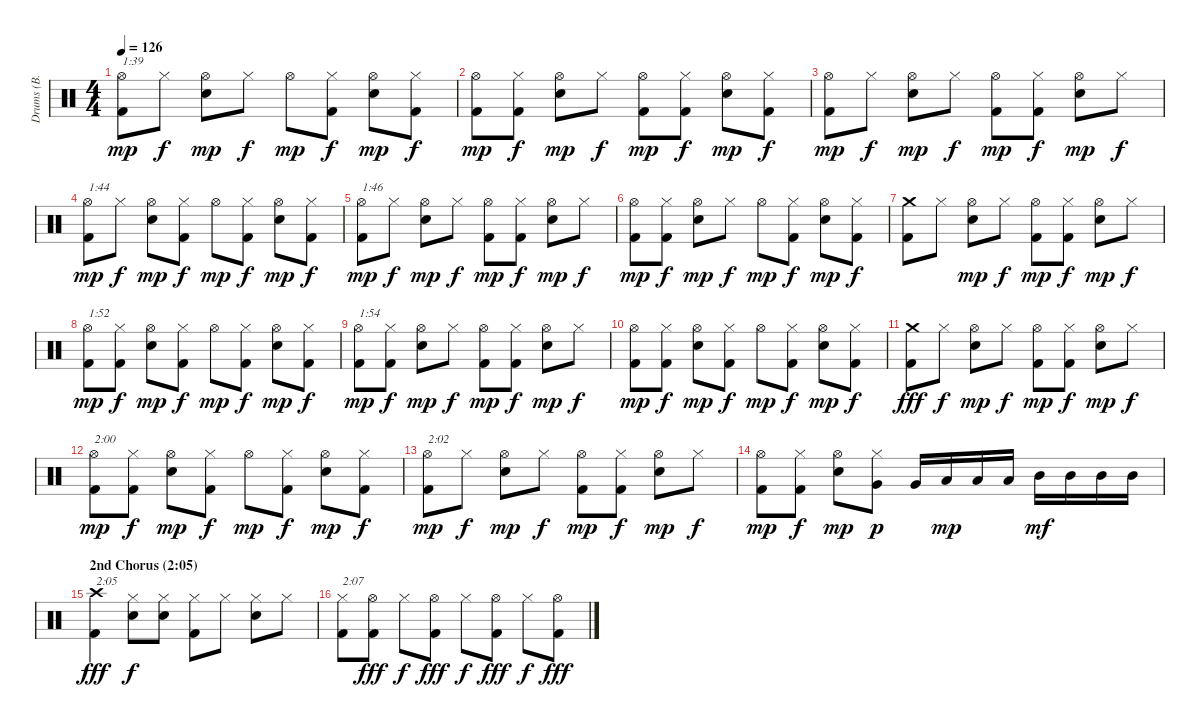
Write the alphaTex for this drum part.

\track ("Drums (B. Downey)" "Drums (B. ") {instrument percussion}
\staff {score}
\articulation defaults
\ts (4 4)
\tempo 126
\clef neutral
\ks c
("Hi-Hat (open)" "Kick (hit) 2").8{txt "1:39" dy mp} "Hi-Hat (closed)".8{dy f} ("Hi-Hat (open)" "Electric Snare (hit)").8{dy mp} "Hi-Hat (closed)".8{dy f} "Hi-Hat (open)".8{dy mp} ("Hi-Hat (closed)" "Kick (hit) 2").8{dy f} ("Hi-Hat (open)" "Electric Snare (hit)").8{dy mp} ("Hi-Hat (closed)" "Kick (hit) 2").8{dy f} |
("Hi-Hat (open)" "Kick (hit) 2").8{dy mp} ("Hi-Hat (closed)" "Kick (hit) 2").8{dy f} ("Hi-Hat (open)" "Electric Snare (hit)").8{dy mp} "Hi-Hat (closed)".8{dy f} ("Hi-Hat (open)" "Kick (hit) 2").8{dy mp} ("Hi-Hat (closed)" "Kick (hit) 2").8{dy f} ("Hi-Hat (open)" "Electric Snare (hit)").8{dy mp} ("Hi-Hat (closed)" "Kick (hit) 2").8{dy f} |
("Hi-Hat (open)" "Kick (hit) 2").8{dy mp} "Hi-Hat (closed)".8{dy f} ("Hi-Hat (open)" "Electric Snare (hit)").8{dy mp} "Hi-Hat (closed)".8{dy f} ("Hi-Hat (open)" "Kick (hit) 2").8{dy mp} ("Hi-Hat (closed)" "Kick (hit) 2").8{dy f} ("Hi-Hat (open)" "Electric Snare (hit)").8{dy mp} "Hi-Hat (closed)".8{dy f} |
("Hi-Hat (open)" "Kick (hit) 2").8{txt "1:44" dy mp} "Hi-Hat (closed)".8{dy f} ("Hi-Hat (open)" "Electric Snare (hit)").8{dy mp} ("Hi-Hat (closed)" "Kick (hit) 2").8{dy f} "Hi-Hat (open)".8{dy mp} ("Hi-Hat (closed)" "Kick (hit) 2").8{dy f} ("Hi-Hat (open)" "Electric Snare (hit)").8{dy mp} ("Hi-Hat (closed)" "Kick (hit) 2").8{dy f} |
("Hi-Hat (open)" "Kick (hit) 2").8{txt "1:46" dy mp} "Hi-Hat (closed)".8{dy f} ("Hi-Hat (open)" "Electric Snare (hit)").8{dy mp} "Hi-Hat (closed)".8{dy f} ("Hi-Hat (open)" "Kick (hit) 2").8{dy mp} ("Hi-Hat (closed)" "Kick (hit) 2").8{dy f} ("Hi-Hat (open)" "Electric Snare (hit)").8{dy mp} "Hi-Hat (closed)".8{dy f} |
("Hi-Hat (open)" "Kick (hit) 2").8{dy mp} ("Hi-Hat (closed)" "Kick (hit) 2").8{dy f} ("Hi-Hat (open)" "Electric Snare (hit)").8{dy mp} "Hi-Hat (closed)".8{dy f} "Hi-Hat (open)".8{dy mp} ("Hi-Hat (closed)" "Kick (hit) 2").8{dy f} ("Hi-Hat (open)" "Electric Snare (hit)").8{dy mp} ("Hi-Hat (closed)" "Kick (hit) 2").8{dy f} |
("Crash medium (hit)" "Kick (hit) 2").8 "Hi-Hat (closed)".8 ("Hi-Hat (open)" "Electric Snare (hit)").8{dy mp} "Hi-Hat (closed)".8{dy f} ("Hi-Hat (open)" "Kick (hit) 2").8{dy mp} ("Hi-Hat (closed)" "Kick (hit) 2").8{dy f} ("Hi-Hat (open)" "Electric Snare (hit)").8{dy mp} "Hi-Hat (closed)".8{dy f} |
("Hi-Hat (open)" "Kick (hit) 2").8{txt "1:52" dy mp} ("Hi-Hat (closed)" "Kick (hit) 2").8{dy f} ("Hi-Hat (open)" "Electric Snare (hit)").8{dy mp} ("Hi-Hat (closed)" "Kick (hit) 2").8{dy f} "Hi-Hat (open)".8{dy mp} ("Hi-Hat (closed)" "Kick (hit) 2").8{dy f} ("Hi-Hat (open)" "Electric Snare (hit)").8{dy mp} ("Hi-Hat (closed)" "Kick (hit) 2").8{dy f} |
("Hi-Hat (open)" "Kick (hit) 2").8{txt "1:54" dy mp} ("Hi-Hat (closed)" "Kick (hit) 2").8{dy f} ("Hi-Hat (open)" "Electric Snare (hit)").8{dy mp} "Hi-Hat (closed)".8{dy f} ("Hi-Hat (open)" "Kick (hit) 2").8{dy mp} ("Hi-Hat (closed)" "Kick (hit) 2").8{dy f} ("Hi-Hat (open)" "Electric Snare (hit)").8{dy mp} "Hi-Hat (closed)".8{dy f} |
("Hi-Hat (open)" "Kick (hit) 2").8{dy mp} ("Hi-Hat (closed)" "Kick (hit) 2").8{dy f} ("Hi-Hat (open)" "Electric Snare (hit)").8{dy mp} ("Hi-Hat (closed)" "Kick (hit) 2").8{dy f} "Hi-Hat (open)".8{dy mp} ("Hi-Hat (closed)" "Kick (hit) 2").8{dy f} ("Hi-Hat (open)" "Electric Snare (hit)").8{dy mp} ("Hi-Hat (closed)" "Kick (hit) 2").8{dy f} |
("Crash medium (hit)" "Kick (hit) 2").8{dy fff} "Hi-Hat (closed)".8{dy f} ("Hi-Hat (open)" "Electric Snare (hit)").8{dy mp} "Hi-Hat (closed)".8{dy f} ("Hi-Hat (open)" "Kick (hit) 2").8{dy mp} ("Hi-Hat (closed)" "Kick (hit) 2").8{dy f} ("Hi-Hat (open)" "Electric Snare (hit)").8{dy mp} "Hi-Hat (closed)".8{dy f} |
("Hi-Hat (open)" "Kick (hit) 2").8{txt "2:00" dy mp} ("Hi-Hat (closed)" "Kick (hit) 2").8{dy f} ("Hi-Hat (open)" "Electric Snare (hit)").8{dy mp} ("Hi-Hat (closed)" "Kick (hit) 2").8{dy f} "Hi-Hat (open)".8{dy mp} ("Hi-Hat (closed)" "Kick (hit) 2").8{dy f} ("Hi-Hat (open)" "Electric Snare (hit)").8{dy mp} ("Hi-Hat (closed)" "Kick (hit) 2").8{dy f} |
("Hi-Hat (open)" "Kick (hit) 2").8{txt "2:02" dy mp} "Hi-Hat (closed)".8{dy f} ("Hi-Hat (open)" "Electric Snare (hit)").8{dy mp} "Hi-Hat (closed)".8{dy f} ("Hi-Hat (open)" "Kick (hit) 2").8{dy mp} ("Hi-Hat (closed)" "Kick (hit) 2").8{dy f} ("Hi-Hat (open)" "Electric Snare (hit)").8{dy mp} "Hi-Hat (closed)".8{dy f} |
("Hi-Hat (open)" "Kick (hit) 2").8{dy mp} ("Hi-Hat (closed)" "Kick (hit) 2").8{dy f} ("Hi-Hat (open)" "Electric Snare (hit)").8{dy mp} ("Hi-Hat (closed)" "Very Low Tom (hit)").8{dy p} "Very Low Tom (hit)".16 "Low Tom (hit)".16{dy mp} "Low Tom (hit)".16 "Low Tom (hit)".16 "Mid Tom (hit)".16{dy mf} "Mid Tom (hit)".16 "Mid Tom (hit)".16 "Mid Tom (hit)".16 |
\section ("" "2nd Chorus (2:05)")
("Crash high (hit)" "Kick (hit) 2").4{txt "2:05" dy fff} ("Hi-Hat (closed)" "Electric Snare (hit)").8{dy f} ("Hi-Hat (closed)" "Electric Snare (hit)").8 ("Hi-Hat (closed)" "Kick (hit) 2").8 "Hi-Hat (closed)".8 ("Hi-Hat (closed)" "Electric Snare (hit)").8 "Hi-Hat (closed)".8 |
("Hi-Hat (closed)" "Kick (hit) 2").8{txt "2:07"} ("Hi-Hat (open)" "Kick (hit) 2").8{dy fff} "Hi-Hat (closed)".8{dy f} ("Hi-Hat (open)" "Kick (hit) 2").8{dy fff} "Hi-Hat (closed)".8{dy f} ("Hi-Hat (open)" "Kick (hit) 2").8{dy fff} "Hi-Hat (closed)".8{dy f} ("Hi-Hat (open)" "Kick (hit) 2").8{dy fff}
